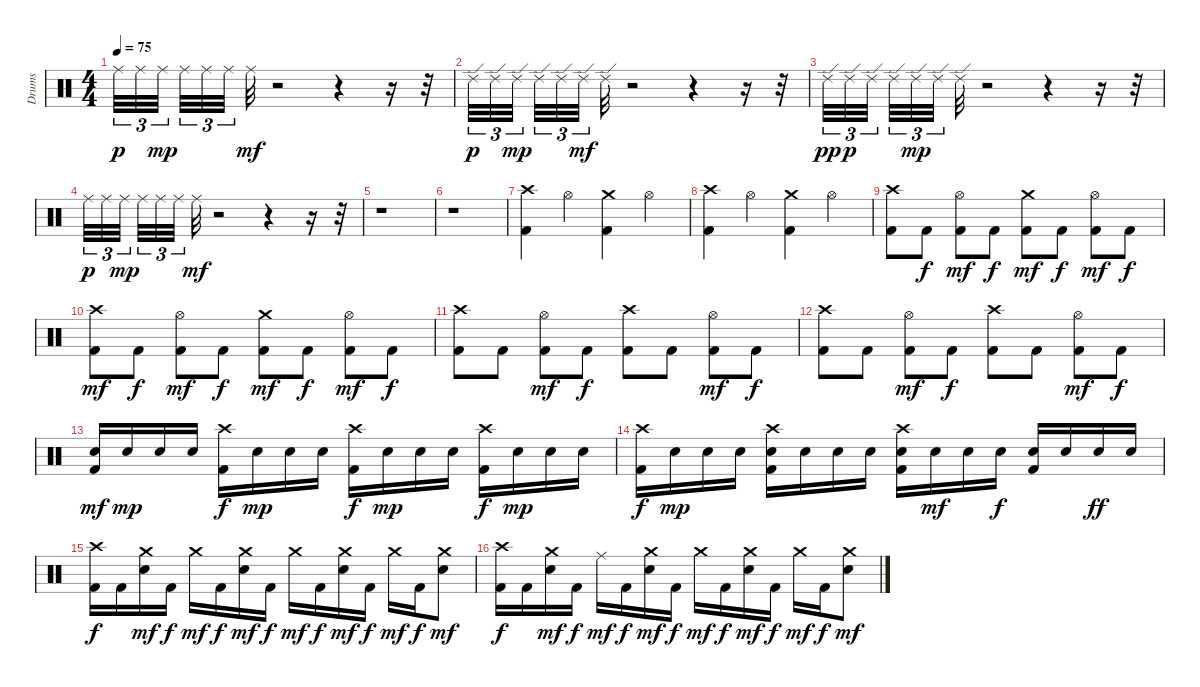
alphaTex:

\track ("Drums" "Drums") {instrument percussion}
\staff {score}
\articulation defaults
\ts (4 4)
\tempo 75
\clef neutral
\ks c "Ride (middle)".32{tu (3 2) dy p} "Ride (middle)".32{tu (3 2)} "Ride (middle)".32{tu (3 2) dy mp} "Ride (middle)".32{tu (3 2)} "Ride (middle)".32{tu (3 2)} "Ride (middle)".32{tu (3 2)} "Ride (middle)".32{dy mf}
r.2 r.4 r.16 r.32 |
"Ride (edge) 2".32{tu (3 2) dy p} "Ride (edge) 2".32{tu (3 2)} "Ride (edge) 2".32{tu (3 2) dy mp} "Ride (edge) 2".32{tu (3 2)} "Ride (edge) 2".32{tu (3 2)} "Ride (edge) 2".32{tu (3 2) dy mf} "Ride (edge) 2".32 r.2 r.4 r.16 r.32 |
"Ride (edge) 2".32{tu (3 2) dy pp} "Ride (edge) 2".32{tu (3 2) dy p} "Ride (edge) 2".32{tu (3 2)} "Ride (edge) 2".32{tu (3 2)} "Ride (edge) 2".32{tu (3 2) dy mp} "Ride (edge) 2".32{tu (3 2)} "Ride (edge) 2".32 r.2 r.4 r.16 r.32 |
"Ride (middle)".32{tu (3 2) dy p} "Ride (middle)".32{tu (3 2)} "Ride (middle)".32{tu (3 2) dy mp} "Ride (middle)".32{tu (3 2)} "Ride (middle)".32{tu (3 2)} "Ride (middle)".32{tu (3 2)} "Ride (middle)".32{dy mf} r.2 r.4 r.16 r.32 |
r.1 |
r.1 |
("Crash high (hit)" "Kick (hit) 2").4 "Hi-Hat (open)".4 ("Crash medium (hit)" "Kick (hit) 2").4 "Hi-Hat (open)".4 |
("Crash high (hit)" "Kick (hit) 2").4 "Hi-Hat (open)".4 ("Crash medium (hit)" "Kick (hit) 2").4 "Hi-Hat (open)".4 |
("Crash high (hit)" "Kick (hit) 2").8 "Kick (hit) 2".8{dy f} ("Hi-Hat (open)" "Kick (hit) 2").8{dy mf} "Kick (hit) 2".8{dy f} ("Crash medium (hit)" "Kick (hit) 2").8{dy mf} "Kick (hit) 2".8{dy f} ("Hi-Hat (open)" "Kick (hit) 2").8{dy mf} "Kick (hit) 2".8{dy f} |
("Crash high (hit)" "Kick (hit) 2").8{dy mf} "Kick (hit) 2".8{dy f} ("Hi-Hat (open)" "Kick (hit) 2").8{dy mf} "Kick (hit) 2".8{dy f} ("Crash medium (hit)" "Kick (hit) 2").8{dy mf} "Kick (hit) 2".8{dy f} ("Hi-Hat (open)" "Kick (hit) 2").8{dy mf} "Kick (hit) 2".8{dy f} |
("Crash high (hit)" "Kick (hit) 2").8 "Kick (hit) 2".8 ("Hi-Hat (open)" "Kick (hit) 2").8{dy mf} "Kick (hit) 2".8{dy f} ("Crash high (hit)" "Kick (hit) 2").8 "Kick (hit) 2".8 ("Hi-Hat (open)" "Kick (hit) 2").8{dy mf} "Kick (hit) 2".8{dy f} |
("Crash high (hit)" "Kick (hit) 2").8 "Kick (hit) 2".8 ("Hi-Hat (open)" "Kick (hit) 2").8{dy mf} "Kick (hit) 2".8{dy f} ("Crash high (hit)" "Kick (hit) 2").8 "Kick (hit) 2".8 ("Hi-Hat (open)" "Kick (hit) 2").8{dy mf} "Kick (hit) 2".8{dy f} |
("Electric Snare (hit)" "Kick (hit) 2").16{dy mf} "Electric Snare (hit)".16{dy mp} "Electric Snare (hit)".16 "Electric Snare (hit)".16 ("Crash high (hit)" "Kick (hit) 2").16{dy f} "Electric Snare (hit)".16{dy mp} "Electric Snare (hit)".16 "Electric Snare (hit)".16 ("Crash high (hit)" "Kick (hit) 2").16{dy f} "Electric Snare (hit)".16{dy mp} "Electric Snare (hit)".16 "Electric Snare (hit)".16 ("Crash high (hit)" "Kick (hit) 2").16{dy f} "Electric Snare (hit)".16{dy mp} "Electric Snare (hit)".16 "Electric Snare (hit)".16 |
("Crash high (hit)" "Kick (hit) 2").16{dy f} "Electric Snare (hit)".16{dy mp} "Electric Snare (hit)".16 "Electric Snare (hit)".16 ("Crash high (hit)" "Electric Snare (hit)" "Kick (hit) 2").16 "Electric Snare (hit)".16 "Electric Snare (hit)".16 "Electric Snare (hit)".16 ("Crash high (hit)" "Electric Snare (hit)" "Kick (hit) 2").16 "Electric Snare (hit)".16{dy mf} "Electric Snare (hit)".16 "Electric Snare (hit)".16{dy f} ("Electric Snare (hit)" "Kick (hit) 2").16 "Electric Snare (hit)".16 "Electric Snare (hit)".16{dy ff} "Electric Snare (hit)".16 |
("Crash high (hit)" "Kick (hit) 2").16{dy f} "Kick (hit) 2".16 ("Crash medium (hit)" "Electric Snare (hit)").16{dy mf} "Kick (hit) 2".16{dy f} "Crash medium (hit)".16{dy mf} "Kick (hit) 2".16{dy f} ("Crash medium (hit)" "Electric Snare (hit)").16{dy mf} "Kick (hit) 2".16{dy f} "Crash medium (hit)".16{dy mf} "Kick (hit) 2".16{dy f} ("Crash medium (hit)" "Electric Snare (hit)").16{dy mf} "Kick (hit) 2".16{dy f} "Crash medium (hit)".16{dy mf} "Kick (hit) 2".16{dy f} ("Crash medium (hit)" "Electric Snare (hit)").8{dy mf} |
("Crash high (hit)" "Kick (hit) 2").16{dy f} "Kick (hit) 2".16 ("Crash medium (hit)" "Electric Snare (hit)").16{dy mf} "Kick (hit) 2".16{dy f} "Ride (middle)".16{dy mf} "Kick (hit) 2".16{dy f} ("Crash medium (hit)" "Electric Snare (hit)").16{dy mf} "Kick (hit) 2".16{dy f} "Crash medium (hit)".16{dy mf} "Kick (hit) 2".16{dy f} ("Crash medium (hit)" "Electric Snare (hit)").16{dy mf} "Kick (hit) 2".16{dy f} "Crash medium (hit)".16{dy mf} "Kick (hit) 2".16{dy f} ("Crash medium (hit)" "Electric Snare (hit)").8{dy mf}
